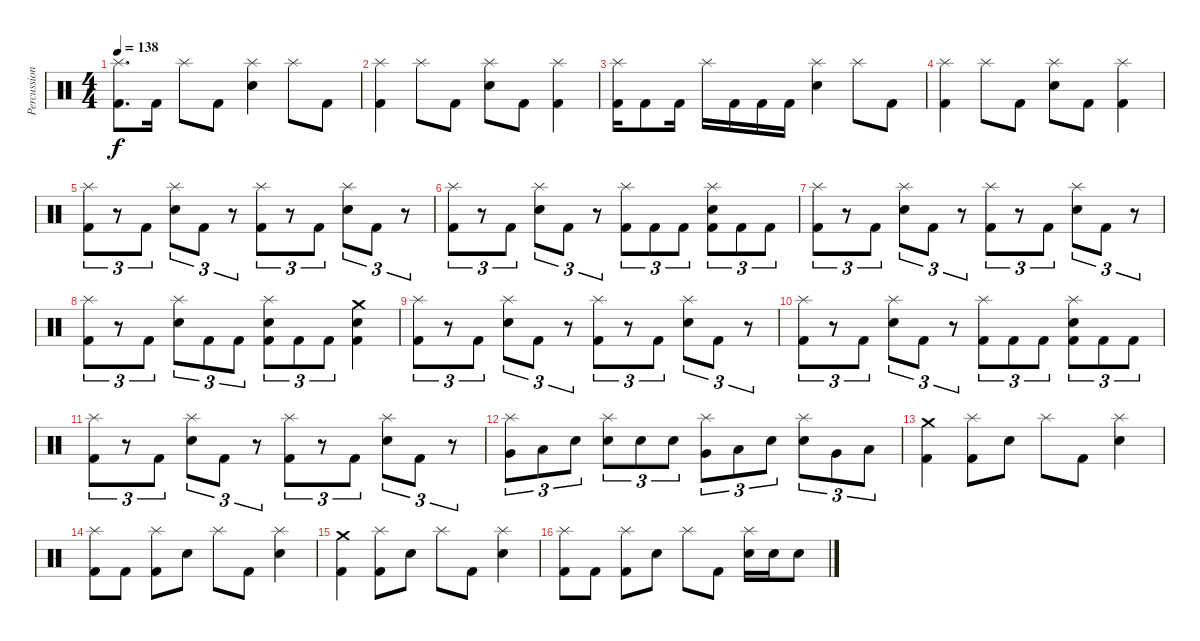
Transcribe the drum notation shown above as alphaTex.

\track ("Percussion" "Percussion") {instrument percussion}
\staff {score}
\articulation defaults
\ts (4 4)
\tempo 138
\clef neutral
\ks c
("Splash (hit)" "Kick (hit) 2").8{d dy f} "Kick (hit) 2".16 "Splash (hit)".8 "Kick (hit) 2".8 ("Splash (hit)" "Snare (hit) 2").4 "Splash (hit)".8 "Kick (hit) 2".8 |
("Splash (hit)" "Kick (hit) 2").4 "Splash (hit)".8 "Kick (hit) 2".8 ("Splash (hit)" "Electric Snare (hit)").8 "Kick (hit) 2".8 ("Splash (hit)" "Kick (hit) 2").4 |
("Splash (hit)" "Kick (hit) 2").16 "Kick (hit) 2".8 "Kick (hit) 2".16 "Splash (hit)".16 "Kick (hit) 2".16 "Kick (hit) 2".16 "Kick (hit) 2".16 ("Splash (hit)" "Snare (hit) 2").4 "Splash (hit)".8 "Kick (hit) 2".8 |
("Splash (hit)" "Kick (hit) 2").4 "Splash (hit)".8 "Kick (hit) 2".8 ("Splash (hit)" "Electric Snare (hit)").8 "Kick (hit) 2".8 ("Splash (hit)" "Kick (hit) 2").4 |
("Splash (hit)" "Kick (hit) 2").8{tu (3 2)} r.8{tu (3 2)} "Kick (hit) 2".8{tu (3 2)} ("Splash (hit)" "Snare (hit) 2").8{tu (3 2)} "Kick (hit) 2".8{tu (3 2)} r.8{tu (3 2)} ("Splash (hit)" "Kick (hit) 2").8{tu (3 2)} r.8{tu (3 2)} "Kick (hit) 2".8{tu (3 2)} ("Splash (hit)" "Snare (hit) 2").8{tu (3 2)} "Kick (hit) 2".8{tu (3 2)} r.8{tu (3 2)} |
("Splash (hit)" "Kick (hit) 2").8{tu (3 2)} r.8{tu (3 2)} "Kick (hit) 2".8{tu (3 2)} ("Splash (hit)" "Snare (hit) 2").8{tu (3 2)} "Kick (hit) 2".8{tu (3 2)} r.8{tu (3 2)} ("Splash (hit)" "Kick (hit) 2").8{tu (3 2)} "Kick (hit) 2".8{tu (3 2)} "Kick (hit) 2".8{tu (3 2)} ("Splash (hit)" "Snare (hit) 2" "Kick (hit) 2").8{tu (3 2)} "Kick (hit) 2".8{tu (3 2)} "Kick (hit) 2".8{tu (3 2)} |
("Splash (hit)" "Kick (hit) 2").8{tu (3 2)} r.8{tu (3 2)} "Kick (hit) 2".8{tu (3 2)} ("Splash (hit)" "Snare (hit) 2").8{tu (3 2)} "Kick (hit) 2".8{tu (3 2)} r.8{tu (3 2)} ("Splash (hit)" "Kick (hit) 2").8{tu (3 2)} r.8{tu (3 2)} "Kick (hit) 2".8{tu (3 2)} ("Splash (hit)" "Snare (hit) 2").8{tu (3 2)} "Kick (hit) 2".8{tu (3 2)} r.8{tu (3 2)} |
("Splash (hit)" "Kick (hit) 2").8{tu (3 2)} r.8{tu (3 2)} "Kick (hit) 2".8{tu (3 2)} ("Splash (hit)" "Snare (hit) 2").8{tu (3 2)} "Kick (hit) 2".8{tu (3 2)} "Kick (hit) 2".8{tu (3 2)} ("Splash (hit)" "Snare (hit) 2" "Kick (hit) 2").8{tu (3 2)} "Kick (hit) 2".8{tu (3 2)} "Kick (hit) 2".8{tu (3 2)} ("Crash medium (hit)" "Snare (hit) 2" "Kick (hit) 2").4 |
("Splash (hit)" "Kick (hit) 2").8{tu (3 2)} r.8{tu (3 2)} "Kick (hit) 2".8{tu (3 2)} ("Splash (hit)" "Snare (hit) 2").8{tu (3 2)} "Kick (hit) 2".8{tu (3 2)} r.8{tu (3 2)} ("Splash (hit)" "Kick (hit) 2").8{tu (3 2)} r.8{tu (3 2)} "Kick (hit) 2".8{tu (3 2)} ("Splash (hit)" "Snare (hit) 2").8{tu (3 2)} "Kick (hit) 2".8{tu (3 2)} r.8{tu (3 2)} |
("Splash (hit)" "Kick (hit) 2").8{tu (3 2)} r.8{tu (3 2)} "Kick (hit) 2".8{tu (3 2)} ("Splash (hit)" "Snare (hit) 2").8{tu (3 2)} "Kick (hit) 2".8{tu (3 2)} r.8{tu (3 2)} ("Splash (hit)" "Kick (hit) 2").8{tu (3 2)} "Kick (hit) 2".8{tu (3 2)} "Kick (hit) 2".8{tu (3 2)} ("Splash (hit)" "Snare (hit) 2" "Kick (hit) 2").8{tu (3 2)} "Kick (hit) 2".8{tu (3 2)} "Kick (hit) 2".8{tu (3 2)} |
("Splash (hit)" "Kick (hit) 2").8{tu (3 2)} r.8{tu (3 2)} "Kick (hit) 2".8{tu (3 2)} ("Splash (hit)" "Snare (hit) 2").8{tu (3 2)} "Kick (hit) 2".8{tu (3 2)} r.8{tu (3 2)} ("Splash (hit)" "Kick (hit) 2").8{tu (3 2)} r.8{tu (3 2)} "Kick (hit) 2".8{tu (3 2)} ("Splash (hit)" "Snare (hit) 2").8{tu (3 2)} "Kick (hit) 2".8{tu (3 2)} r.8{tu (3 2)} |
("Splash (hit)" "Very Low Tom (hit)").8{tu (3 2)} "Low Floor Tom (hit)".8{tu (3 2)} "Snare (hit) 2".8{tu (3 2)} ("Splash (hit)" "Snare (hit) 2").8{tu (3 2)} "Snare (hit) 2".8{tu (3 2)} "Snare (hit) 2".8{tu (3 2)} ("Splash (hit)" "Very Low Tom (hit)").8{tu (3 2)} "Low Floor Tom (hit)".8{tu (3 2)} "Snare (hit) 2".8{tu (3 2)} ("Splash (hit)" "Snare (hit) 2").8{tu (3 2)} "Very Low Tom (hit)".8{tu (3 2)} "Low Floor Tom (hit)".8{tu (3 2)} |
("Crash medium (hit)" "Kick (hit) 2").4 ("Splash (hit)" "Kick (hit) 2").8 "Snare (hit) 2".8 "Splash (hit)".8 "Kick (hit) 2".8 ("Splash (hit)" "Snare (hit) 2").4 |
("Splash (hit)" "Kick (hit) 2").8 "Kick (hit) 2".8 ("Splash (hit)" "Kick (hit) 2").8 "Snare (hit) 2".8 "Splash (hit)".8 "Kick (hit) 2".8 ("Splash (hit)" "Snare (hit) 2").4 |
("Crash medium (hit)" "Kick (hit) 2").4 ("Splash (hit)" "Kick (hit) 2").8 "Snare (hit) 2".8 "Splash (hit)".8 "Kick (hit) 2".8 ("Splash (hit)" "Snare (hit) 2").4 |
("Splash (hit)" "Kick (hit) 2").8 "Kick (hit) 2".8 ("Splash (hit)" "Kick (hit) 2").8 "Snare (hit) 2".8 "Splash (hit)".8 "Kick (hit) 2".8 ("Splash (hit)" "Snare (hit) 2").16 "Snare (hit) 2".16 "Snare (hit) 2".8
